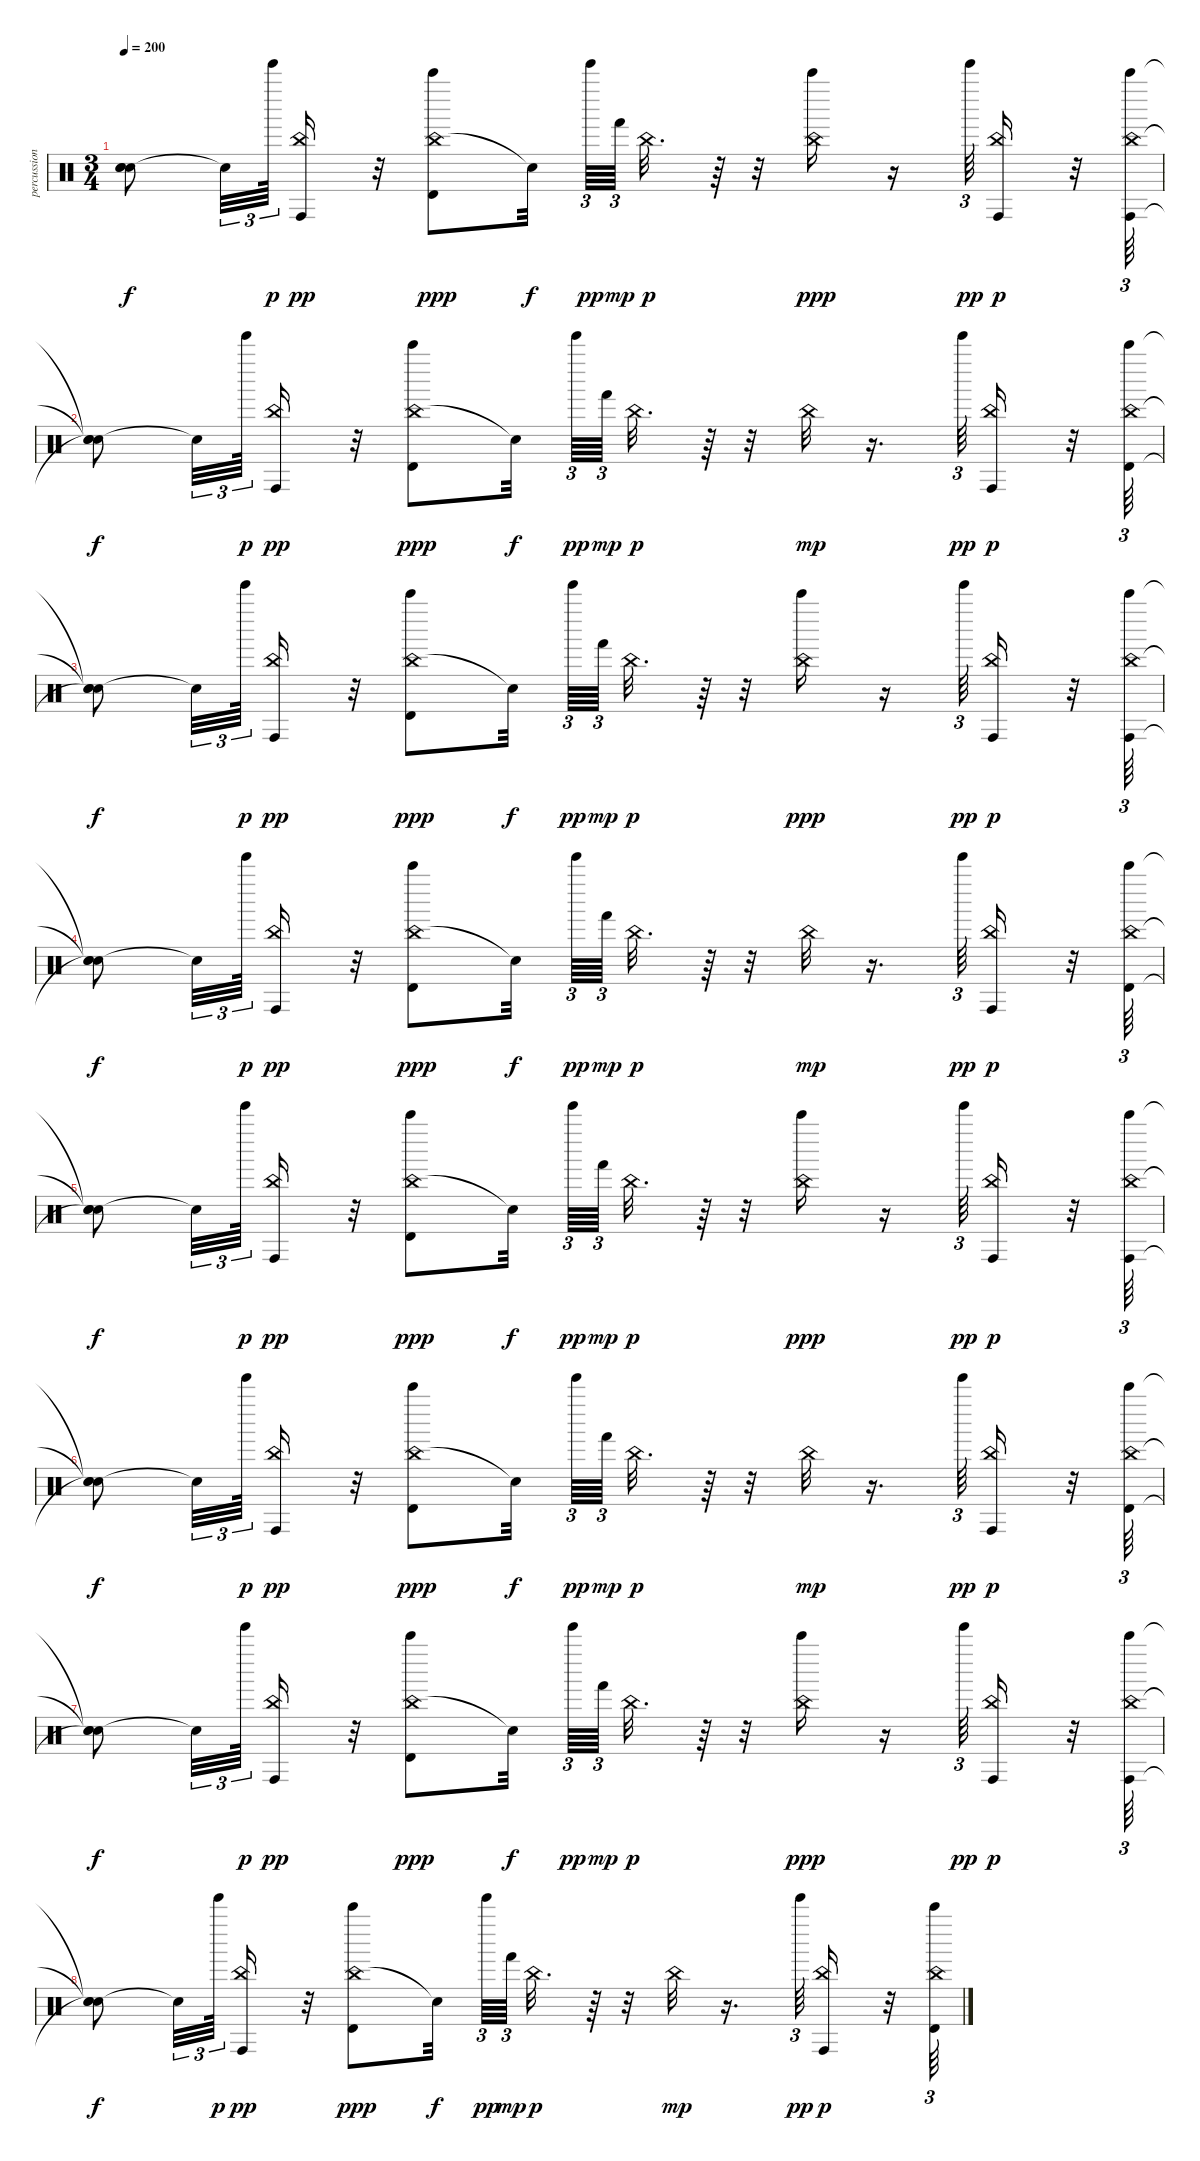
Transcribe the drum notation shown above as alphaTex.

\track ("percussion" "percussion") {instrument percussion}
\staff {score}
\articulation defaults
\ts (3 4)
\tempo 200
\clef neutral
\ks c
("Snare (hit)"{t} "Snare (hit)"{t} "Snare (hit)"{t}).8{dy f} "Snare (hit)"{t}.32{tu (3 2)} "Tinkle Bell (hit)".64{tu (3 2) dy p} ("Conga high (hit)" "China (hit)").16{dy pp} r.32 ("China (hit)" "Timbale high (hit)" "Bell Tree (hit)").8{dy ppp} "Snare (hit)"{t}.32{dy f} "Tinkle Bell (hit)".64{tu (3 2) dy pp} "Hand (hit)".64{tu (3 2) dy mp} "China (hit)".32{d dy p} r.64 r.32 ("China (hit)" "Bell Tree (hit)").16{dy ppp} r.16 "Tinkle Bell (hit)".64{tu (3 2) dy pp} ("Conga high (hit)" "China (hit)").16{dy p} r.32 ("China (hit)" "Conga high (hit)" "Bell Tree (hit)").64{tu (3 2)} |
("Snare (hit)"{t} "Snare (hit)"{t} "Snare (hit)"{t}).8{dy f} "Snare (hit)"{t}.32{tu (3 2)} "Tinkle Bell (hit)".64{tu (3 2) dy p} ("Conga high (hit)" "China (hit)").16{dy pp} r.32 ("China (hit)" "Timbale high (hit)" "Bell Tree (hit)").8{dy ppp} "Snare (hit)"{t}.32{dy f} "Tinkle Bell (hit)".64{tu (3 2) dy pp} "Hand (hit)".64{tu (3 2) dy mp} "China (hit)".32{d dy p} r.64 r.32 "China (hit)".32{dy mp} r.16{d} "Tinkle Bell (hit)".64{tu (3 2) dy pp} ("Conga high (hit)" "China (hit)").16{dy p} r.32 ("China (hit)" "Timbale high (hit)" "Bell Tree (hit)").64{tu (3 2)} |
("Snare (hit)"{t} "Snare (hit)"{t} "Snare (hit)"{t}).8{dy f} "Snare (hit)"{t}.32{tu (3 2)} "Tinkle Bell (hit)".64{tu (3 2) dy p} ("Conga high (hit)" "China (hit)").16{dy pp} r.32 ("China (hit)" "Timbale high (hit)" "Bell Tree (hit)").8{dy ppp} "Snare (hit)"{t}.32{dy f} "Tinkle Bell (hit)".64{tu (3 2) dy pp} "Hand (hit)".64{tu (3 2) dy mp} "China (hit)".32{d dy p} r.64 r.32 ("China (hit)" "Bell Tree (hit)").16{dy ppp} r.16 "Tinkle Bell (hit)".64{tu (3 2) dy pp} ("Conga high (hit)" "China (hit)").16{dy p} r.32 ("China (hit)" "Conga high (hit)" "Bell Tree (hit)").64{tu (3 2)} |
("Snare (hit)"{t} "Snare (hit)"{t} "Snare (hit)"{t}).8{dy f} "Snare (hit)"{t}.32{tu (3 2)} "Tinkle Bell (hit)".64{tu (3 2) dy p} ("Conga high (hit)" "China (hit)").16{dy pp} r.32 ("China (hit)" "Timbale high (hit)" "Bell Tree (hit)").8{dy ppp} "Snare (hit)"{t}.32{dy f} "Tinkle Bell (hit)".64{tu (3 2) dy pp} "Hand (hit)".64{tu (3 2) dy mp} "China (hit)".32{d dy p} r.64 r.32 "China (hit)".32{dy mp} r.16{d} "Tinkle Bell (hit)".64{tu (3 2) dy pp} ("Conga high (hit)" "China (hit)").16{dy p} r.32 ("China (hit)" "Timbale high (hit)" "Bell Tree (hit)").64{tu (3 2)} |
("Snare (hit)"{t} "Snare (hit)"{t} "Snare (hit)"{t}).8{dy f} "Snare (hit)"{t}.32{tu (3 2)} "Tinkle Bell (hit)".64{tu (3 2) dy p} ("Conga high (hit)" "China (hit)").16{dy pp} r.32 ("China (hit)" "Timbale high (hit)" "Bell Tree (hit)").8{dy ppp} "Snare (hit)"{t}.32{dy f} "Tinkle Bell (hit)".64{tu (3 2) dy pp} "Hand (hit)".64{tu (3 2) dy mp} "China (hit)".32{d dy p} r.64 r.32 ("China (hit)" "Bell Tree (hit)").16{dy ppp} r.16 "Tinkle Bell (hit)".64{tu (3 2) dy pp} ("Conga high (hit)" "China (hit)").16{dy p} r.32 ("China (hit)" "Conga high (hit)" "Bell Tree (hit)").64{tu (3 2)} |
("Snare (hit)"{t} "Snare (hit)"{t} "Snare (hit)"{t}).8{dy f} "Snare (hit)"{t}.32{tu (3 2)} "Tinkle Bell (hit)".64{tu (3 2) dy p} ("Conga high (hit)" "China (hit)").16{dy pp} r.32 ("China (hit)" "Timbale high (hit)" "Bell Tree (hit)").8{dy ppp} "Snare (hit)"{t}.32{dy f} "Tinkle Bell (hit)".64{tu (3 2) dy pp} "Hand (hit)".64{tu (3 2) dy mp} "China (hit)".32{d dy p} r.64 r.32 "China (hit)".32{dy mp} r.16{d} "Tinkle Bell (hit)".64{tu (3 2) dy pp} ("Conga high (hit)" "China (hit)").16{dy p} r.32 ("China (hit)" "Timbale high (hit)" "Bell Tree (hit)").64{tu (3 2)} |
("Snare (hit)"{t} "Snare (hit)"{t} "Snare (hit)"{t}).8{dy f} "Snare (hit)"{t}.32{tu (3 2)} "Tinkle Bell (hit)".64{tu (3 2) dy p} ("Conga high (hit)" "China (hit)").16{dy pp} r.32 ("China (hit)" "Timbale high (hit)" "Bell Tree (hit)").8{dy ppp} "Snare (hit)"{t}.32{dy f} "Tinkle Bell (hit)".64{tu (3 2) dy pp} "Hand (hit)".64{tu (3 2) dy mp} "China (hit)".32{d dy p} r.64 r.32 ("China (hit)" "Bell Tree (hit)").16{dy ppp} r.16 "Tinkle Bell (hit)".64{tu (3 2) dy pp} ("Conga high (hit)" "China (hit)").16{dy p} r.32 ("China (hit)" "Conga high (hit)" "Bell Tree (hit)").64{tu (3 2)} |
("Snare (hit)"{t} "Snare (hit)"{t} "Snare (hit)"{t}).8{dy f} "Snare (hit)"{t}.32{tu (3 2)} "Tinkle Bell (hit)".64{tu (3 2) dy p} ("Conga high (hit)" "China (hit)").16{dy pp} r.32 ("China (hit)" "Timbale high (hit)" "Bell Tree (hit)").8{dy ppp} "Snare (hit)"{t}.32{dy f} "Tinkle Bell (hit)".64{tu (3 2) dy pp} "Hand (hit)".64{tu (3 2) dy mp} "China (hit)".32{d dy p} r.64 r.32 "China (hit)".32{dy mp} r.16{d} "Tinkle Bell (hit)".64{tu (3 2) dy pp} ("Conga high (hit)" "China (hit)").16{dy p} r.32 ("China (hit)" "Timbale high (hit)" "Bell Tree (hit)").64{tu (3 2)}
